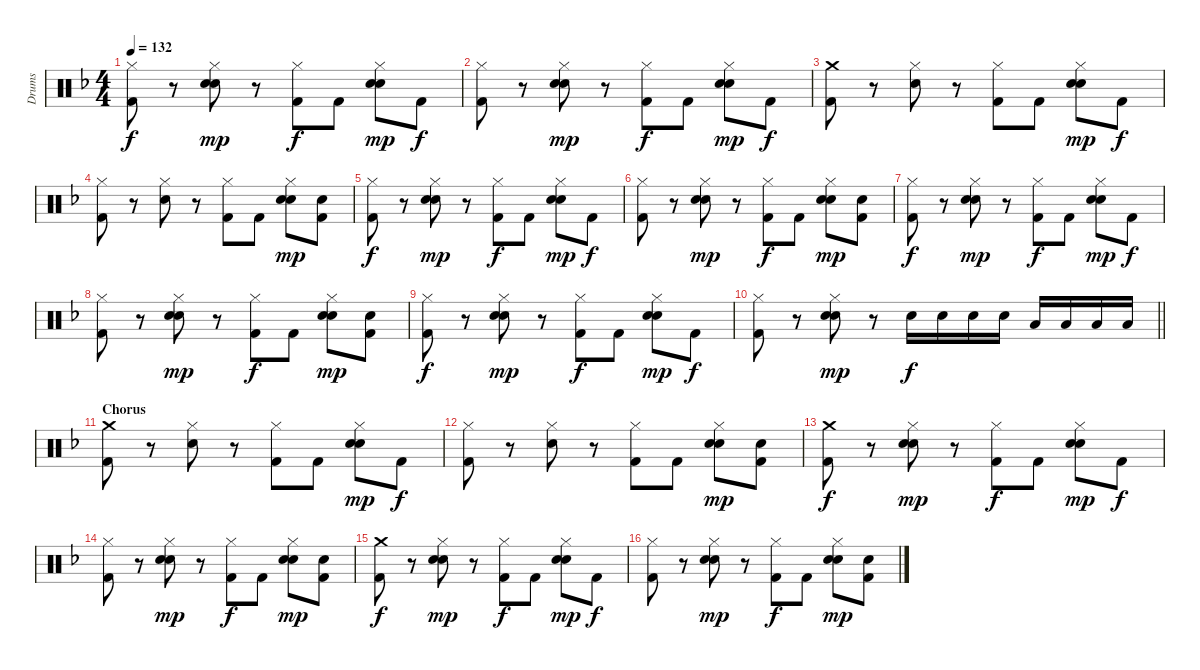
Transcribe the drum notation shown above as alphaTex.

\track ("Drums" "Drums") {instrument percussion}
\staff {score}
\articulation defaults
\ts (4 4)
\tempo 132
\clef neutral
\ks f
("Hi-Hat (closed)" "Kick (hit) 2").8{dy f} r.8 ("Hi-Hat (closed)" "Hand Clap (hit)" "Snare (hit) 2").8{dy mp} r.8 ("Hi-Hat (closed)" "Kick (hit) 2").8{dy f} "Kick (hit) 2".8 ("Hi-Hat (closed)" "Hand Clap (hit)" "Snare (hit) 2").8{dy mp} "Kick (hit) 2".8{dy f} |
("Hi-Hat (closed)" "Kick (hit) 2").8 r.8 ("Hi-Hat (closed)" "Hand Clap (hit)" "Snare (hit) 2").8{dy mp} r.8 ("Hi-Hat (closed)" "Kick (hit) 2").8{dy f} "Kick (hit) 2".8 ("Hi-Hat (closed)" "Hand Clap (hit)" "Snare (hit) 2").8{dy mp} "Kick (hit) 2".8{dy f} |
("Crash medium (hit)" "Kick (hit) 2").8 r.8 ("Hi-Hat (closed)" "Snare (hit) 2").8 r.8 ("Hi-Hat (closed)" "Kick (hit) 2").8 "Kick (hit) 2".8 ("Hi-Hat (closed)" "Hand Clap (hit)" "Snare (hit) 2").8{dy mp} "Kick (hit) 2".8{dy f} |
("Hi-Hat (closed)" "Kick (hit) 2").8 r.8 ("Hi-Hat (closed)" "Snare (hit) 2").8 r.8 ("Hi-Hat (closed)" "Kick (hit) 2").8 "Kick (hit) 2".8 ("Hi-Hat (closed)" "Hand Clap (hit)" "Snare (hit) 2").8{dy mp} ("Hand Clap (hit)" "Kick (hit) 2").8 |
("Hi-Hat (closed)" "Kick (hit) 2").8{dy f} r.8 ("Hi-Hat (closed)" "Hand Clap (hit)" "Snare (hit) 2").8{dy mp} r.8 ("Hi-Hat (closed)" "Kick (hit) 2").8{dy f} "Kick (hit) 2".8 ("Hi-Hat (closed)" "Hand Clap (hit)" "Snare (hit) 2").8{dy mp} "Kick (hit) 2".8{dy f} |
("Hi-Hat (closed)" "Kick (hit) 2").8 r.8 ("Hi-Hat (closed)" "Hand Clap (hit)" "Snare (hit) 2").8{dy mp} r.8 ("Hi-Hat (closed)" "Kick (hit) 2").8{dy f} "Kick (hit) 2".8 ("Hi-Hat (closed)" "Hand Clap (hit)" "Snare (hit) 2").8{dy mp} ("Hand Clap (hit)" "Kick (hit) 2").8 |
("Hi-Hat (closed)" "Kick (hit) 2").8{dy f} r.8 ("Hi-Hat (closed)" "Hand Clap (hit)" "Snare (hit) 2").8{dy mp} r.8 ("Hi-Hat (closed)" "Kick (hit) 2").8{dy f} "Kick (hit) 2".8 ("Hi-Hat (closed)" "Hand Clap (hit)" "Snare (hit) 2").8{dy mp} "Kick (hit) 2".8{dy f} |
("Hi-Hat (closed)" "Kick (hit) 2").8 r.8 ("Hi-Hat (closed)" "Hand Clap (hit)" "Snare (hit) 2").8{dy mp} r.8 ("Hi-Hat (closed)" "Kick (hit) 2").8{dy f} "Kick (hit) 2".8 ("Hi-Hat (closed)" "Hand Clap (hit)" "Snare (hit) 2").8{dy mp} ("Hand Clap (hit)" "Kick (hit) 2").8 |
("Hi-Hat (closed)" "Kick (hit) 2").8{dy f} r.8 ("Hi-Hat (closed)" "Hand Clap (hit)" "Snare (hit) 2").8{dy mp} r.8 ("Hi-Hat (closed)" "Kick (hit) 2").8{dy f} "Kick (hit) 2".8 ("Hi-Hat (closed)" "Hand Clap (hit)" "Snare (hit) 2").8{dy mp} "Kick (hit) 2".8{dy f} |
\barLineRight lightlight
("Hi-Hat (closed)" "Kick (hit) 2").8 r.8 ("Hi-Hat (closed)" "Hand Clap (hit)" "Snare (hit) 2").8{dy mp} r.8 "Snare (hit) 2".16{dy f} "Snare (hit) 2".16 "Snare (hit) 2".16 "Snare (hit) 2".16 "Low Tom (hit)".16 "Low Tom (hit)".16 "Low Tom (hit)".16 "Low Tom (hit)".16 |
\section ("" "Chorus")
("Crash medium (hit)" "Kick (hit) 2").8 r.8 ("Hi-Hat (closed)" "Snare (hit) 2").8 r.8 ("Hi-Hat (closed)" "Kick (hit) 2").8 "Kick (hit) 2".8 ("Hi-Hat (closed)" "Hand Clap (hit)" "Snare (hit) 2").8{dy mp} "Kick (hit) 2".8{dy f} |
("Hi-Hat (closed)" "Kick (hit) 2").8 r.8 ("Hi-Hat (closed)" "Snare (hit) 2").8 r.8 ("Hi-Hat (closed)" "Kick (hit) 2").8 "Kick (hit) 2".8 ("Hi-Hat (closed)" "Hand Clap (hit)" "Snare (hit) 2").8{dy mp} ("Hand Clap (hit)" "Kick (hit) 2").8 |
("Crash medium (hit)" "Kick (hit) 2").8{dy f} r.8 ("Hi-Hat (closed)" "Hand Clap (hit)" "Snare (hit) 2").8{dy mp} r.8 ("Hi-Hat (closed)" "Kick (hit) 2").8{dy f} "Kick (hit) 2".8 ("Hi-Hat (closed)" "Hand Clap (hit)" "Snare (hit) 2").8{dy mp} "Kick (hit) 2".8{dy f} |
("Hi-Hat (closed)" "Kick (hit) 2").8 r.8 ("Hi-Hat (closed)" "Hand Clap (hit)" "Snare (hit) 2").8{dy mp} r.8 ("Hi-Hat (closed)" "Kick (hit) 2").8{dy f} "Kick (hit) 2".8 ("Hi-Hat (closed)" "Hand Clap (hit)" "Snare (hit) 2").8{dy mp} ("Hand Clap (hit)" "Kick (hit) 2").8 |
("Crash medium (hit)" "Kick (hit) 2").8{dy f} r.8 ("Hi-Hat (closed)" "Hand Clap (hit)" "Snare (hit) 2").8{dy mp} r.8 ("Hi-Hat (closed)" "Kick (hit) 2").8{dy f} "Kick (hit) 2".8 ("Hi-Hat (closed)" "Hand Clap (hit)" "Snare (hit) 2").8{dy mp} "Kick (hit) 2".8{dy f} |
("Hi-Hat (closed)" "Kick (hit) 2").8 r.8 ("Hi-Hat (closed)" "Hand Clap (hit)" "Snare (hit) 2").8{dy mp} r.8 ("Hi-Hat (closed)" "Kick (hit) 2").8{dy f} "Kick (hit) 2".8 ("Hi-Hat (closed)" "Hand Clap (hit)" "Snare (hit) 2").8{dy mp} ("Hand Clap (hit)" "Kick (hit) 2").8
